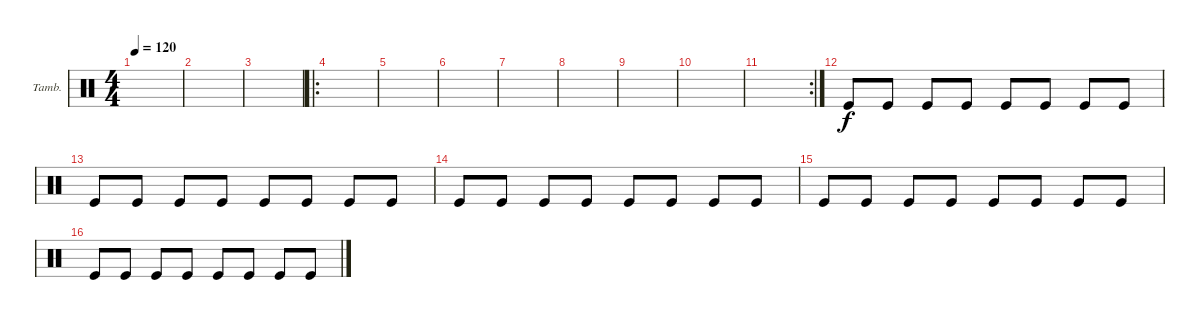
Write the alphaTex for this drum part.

\bracketExtendMode groupsimilarinstruments
\firstSystemTrackNameOrientation horizontal
\otherSystemsTrackNameOrientation horizontal
\track ("Tambourine" "Tamb.") {instrument percussion}
\staff {score}
\articulation defaults
\ts (4 4)
\tempo 120
\clef neutral
\ks c
|
|
|
\ro
|
|
|
|
|
|
|
\rc 2
|
"Kick (hit)".8 "Kick (hit)".8 "Kick (hit)".8 "Kick (hit)".8 "Kick (hit)".8 "Kick (hit)".8 "Kick (hit)".8 "Kick (hit)".8 |
"Kick (hit)".8 "Kick (hit)".8 "Kick (hit)".8 "Kick (hit)".8 "Kick (hit)".8 "Kick (hit)".8 "Kick (hit)".8 "Kick (hit)".8 |
"Kick (hit)".8 "Kick (hit)".8 "Kick (hit)".8 "Kick (hit)".8 "Kick (hit)".8 "Kick (hit)".8 "Kick (hit)".8 "Kick (hit)".8 |
"Kick (hit)".8 "Kick (hit)".8 "Kick (hit)".8 "Kick (hit)".8 "Kick (hit)".8 "Kick (hit)".8 "Kick (hit)".8 "Kick (hit)".8 |
"Kick (hit)".8 "Kick (hit)".8 "Kick (hit)".8 "Kick (hit)".8 "Kick (hit)".8 "Kick (hit)".8 "Kick (hit)".8 "Kick (hit)".8
